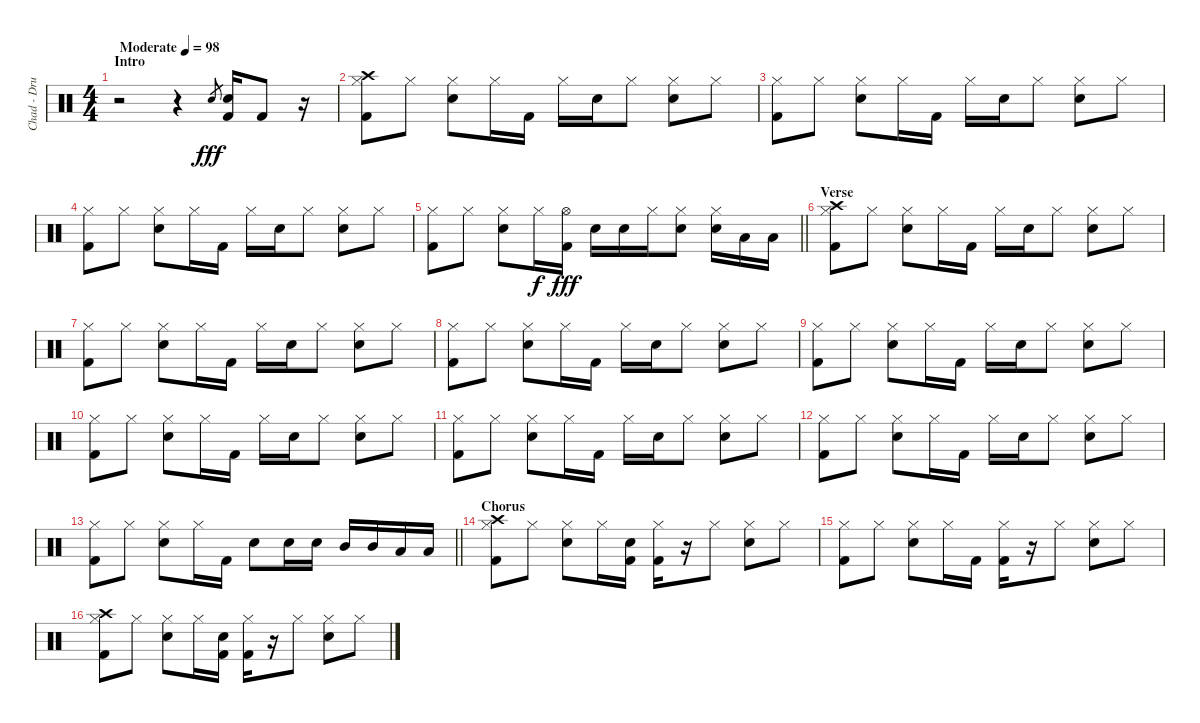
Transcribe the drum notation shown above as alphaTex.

\track ("Chad - Drums" "Chad - Dru") {instrument percussion}
\staff {score}
\articulation defaults
\ts (4 4)
\section ("" "Intro")
\tempo (98 "Moderate")
\clef neutral
\ks c
r.2{dy fff} r.4 "Snare (hit) 2".8{gr} ("Snare (hit) 2" "Kick (hit) 2").16 "Kick (hit) 2".8 r.16 |
("Hi-Hat (closed)" "Crash high (hit)" "Kick (hit) 2").8 "Hi-Hat (closed)".8 ("Snare (hit) 2" "Hi-Hat (closed)").8 "Hi-Hat (closed)".16 "Kick (hit) 2".16 "Hi-Hat (closed)".16 "Snare (hit) 2".16 "Hi-Hat (closed)".8 ("Snare (hit) 2" "Hi-Hat (closed)").8 "Hi-Hat (closed)".8 |
("Hi-Hat (closed)" "Kick (hit) 2").8 "Hi-Hat (closed)".8 ("Snare (hit) 2" "Hi-Hat (closed)").8 "Hi-Hat (closed)".16 "Kick (hit) 2".16 "Hi-Hat (closed)".16 "Snare (hit) 2".16 "Hi-Hat (closed)".8 ("Snare (hit) 2" "Hi-Hat (closed)").8 "Hi-Hat (closed)".8 |
("Hi-Hat (closed)" "Kick (hit) 2").8 "Hi-Hat (closed)".8 ("Snare (hit) 2" "Hi-Hat (closed)").8 "Hi-Hat (closed)".16 "Kick (hit) 2".16 "Hi-Hat (closed)".16 "Snare (hit) 2".16 "Hi-Hat (closed)".8 ("Snare (hit) 2" "Hi-Hat (closed)").8 "Hi-Hat (closed)".8 |
\barLineRight lightlight
("Hi-Hat (closed)" "Kick (hit) 2").8 "Hi-Hat (closed)".8 ("Snare (hit) 2" "Hi-Hat (closed)").8 "Hi-Hat (closed)".16{dy f} ("Hi-Hat (open)" "Kick (hit) 2").16{dy fff} "Snare (hit) 2".16 "Snare (hit) 2".16 "Hi-Hat (closed)".16 ("Snare (hit) 2" "Hi-Hat (closed)").8 ("Snare (hit) 2" "Hi-Hat (closed)").16 "Low Tom (hit)".16 "Low Tom (hit)".16 |
\section ("" "Verse")
("Hi-Hat (closed)" "Crash high (hit)" "Kick (hit) 2").8 "Hi-Hat (closed)".8 ("Snare (hit) 2" "Hi-Hat (closed)").8 "Hi-Hat (closed)".16 "Kick (hit) 2".16 "Hi-Hat (closed)".16 "Snare (hit) 2".16 "Hi-Hat (closed)".8 ("Snare (hit) 2" "Hi-Hat (closed)").8 "Hi-Hat (closed)".8 |
("Hi-Hat (closed)" "Kick (hit) 2").8 "Hi-Hat (closed)".8 ("Snare (hit) 2" "Hi-Hat (closed)").8 "Hi-Hat (closed)".16 "Kick (hit) 2".16 "Hi-Hat (closed)".16 "Snare (hit) 2".16 "Hi-Hat (closed)".8 ("Snare (hit) 2" "Hi-Hat (closed)").8 "Hi-Hat (closed)".8 |
("Hi-Hat (closed)" "Kick (hit) 2").8 "Hi-Hat (closed)".8 ("Snare (hit) 2" "Hi-Hat (closed)").8 "Hi-Hat (closed)".16 "Kick (hit) 2".16 "Hi-Hat (closed)".16 "Snare (hit) 2".16 "Hi-Hat (closed)".8 ("Snare (hit) 2" "Hi-Hat (closed)").8 "Hi-Hat (closed)".8 |
("Hi-Hat (closed)" "Kick (hit) 2").8 "Hi-Hat (closed)".8 ("Snare (hit) 2" "Hi-Hat (closed)").8 "Hi-Hat (closed)".16 "Kick (hit) 2".16 "Hi-Hat (closed)".16 "Snare (hit) 2".16 "Hi-Hat (closed)".8 ("Snare (hit) 2" "Hi-Hat (closed)").8 "Hi-Hat (closed)".8 |
("Hi-Hat (closed)" "Kick (hit) 2").8 "Hi-Hat (closed)".8 ("Snare (hit) 2" "Hi-Hat (closed)").8 "Hi-Hat (closed)".16 "Kick (hit) 2".16 "Hi-Hat (closed)".16 "Snare (hit) 2".16 "Hi-Hat (closed)".8 ("Snare (hit) 2" "Hi-Hat (closed)").8 "Hi-Hat (closed)".8 |
("Hi-Hat (closed)" "Kick (hit) 2").8 "Hi-Hat (closed)".8 ("Snare (hit) 2" "Hi-Hat (closed)").8 "Hi-Hat (closed)".16 "Kick (hit) 2".16 "Hi-Hat (closed)".16 "Snare (hit) 2".16 "Hi-Hat (closed)".8 ("Snare (hit) 2" "Hi-Hat (closed)").8 "Hi-Hat (closed)".8 |
("Hi-Hat (closed)" "Kick (hit) 2").8 "Hi-Hat (closed)".8 ("Snare (hit) 2" "Hi-Hat (closed)").8 "Hi-Hat (closed)".16 "Kick (hit) 2".16 "Hi-Hat (closed)".16 "Snare (hit) 2".16 "Hi-Hat (closed)".8 ("Snare (hit) 2" "Hi-Hat (closed)").8 "Hi-Hat (closed)".8 |
\barLineRight lightlight
("Hi-Hat (closed)" "Kick (hit) 2").8 "Hi-Hat (closed)".8 ("Snare (hit) 2" "Hi-Hat (closed)").8 "Hi-Hat (closed)".16 "Kick (hit) 2".16 "Snare (hit) 2".8 "Snare (hit) 2".16 "Snare (hit) 2".16 "Mid Tom (hit)".16 "Mid Tom (hit)".16 "Low Tom (hit)".16 "Low Tom (hit)".16 |
\section ("" "Chorus")
("Hi-Hat (closed)" "Crash high (hit)" "Kick (hit) 2").8 "Hi-Hat (closed)".8 ("Snare (hit) 2" "Hi-Hat (closed)").8 "Hi-Hat (closed)".16 ("Snare (hit) 2" "Kick (hit) 2").16 ("Hi-Hat (closed)" "Kick (hit) 2").16 r.16 "Hi-Hat (closed)".8 ("Snare (hit) 2" "Hi-Hat (closed)").8 "Hi-Hat (closed)".8 |
("Hi-Hat (closed)" "Kick (hit) 2").8 "Hi-Hat (closed)".8 ("Snare (hit) 2" "Hi-Hat (closed)").8 "Hi-Hat (closed)".16 "Kick (hit) 2".16 ("Hi-Hat (closed)" "Kick (hit) 2").16 r.16 "Hi-Hat (closed)".8 ("Snare (hit) 2" "Hi-Hat (closed)").8 "Hi-Hat (closed)".8 |
("Hi-Hat (closed)" "Crash high (hit)" "Kick (hit) 2").8 "Hi-Hat (closed)".8 ("Snare (hit) 2" "Hi-Hat (closed)").8 "Hi-Hat (closed)".16 ("Snare (hit) 2" "Kick (hit) 2").16 ("Hi-Hat (closed)" "Kick (hit) 2").16 r.16 "Hi-Hat (closed)".8 ("Snare (hit) 2" "Hi-Hat (closed)").8 "Hi-Hat (closed)".8
